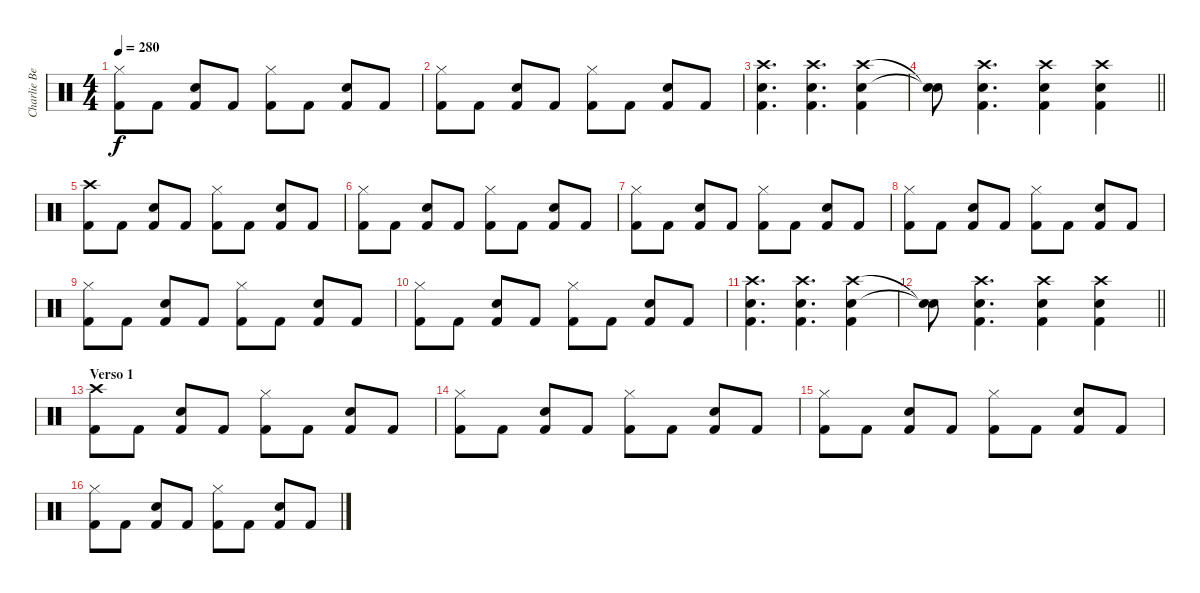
\track ("Charlie Benante" "Charlie Be") {instrument percussion}
\staff {score}
\articulation defaults
\ts (4 4)
\tempo 280
\clef neutral
\ks c
("Hi-Hat (closed)" "Kick (hit) 2").8{dy f} "Kick (hit) 2".8 ("Snare (hit) 2" "Kick (hit) 2").8 "Kick (hit) 2".8 ("Hi-Hat (closed)" "Kick (hit) 2").8 "Kick (hit) 2".8 ("Snare (hit) 2" "Kick (hit) 2").8 "Kick (hit) 2".8 |
("Hi-Hat (closed)" "Kick (hit) 2").8 "Kick (hit) 2".8 ("Snare (hit) 2" "Kick (hit) 2").8 "Kick (hit) 2".8 ("Hi-Hat (closed)" "Kick (hit) 2").8 "Kick (hit) 2".8 ("Snare (hit) 2" "Kick (hit) 2").8 "Kick (hit) 2".8 |
("Crash high (hit)" "Snare (hit) 2" "Kick (hit) 2").4{d} ("Crash high (hit)" "Snare (hit) 2" "Kick (hit) 2").4{d} ("Crash high (hit)" "Snare (hit) 2" "Kick (hit) 2").4 |
\barLineRight lightlight
("Snare (hit)"{t} "Snare (hit)"{t}).8 ("Crash high (hit)" "Snare (hit) 2" "Kick (hit) 2").4{d} ("Crash high (hit)" "Snare (hit) 2" "Kick (hit) 2").4 ("Crash high (hit)" "Snare (hit) 2" "Kick (hit) 2").4 |
("Crash high (hit)" "Kick (hit) 2").8 "Kick (hit) 2".8 ("Snare (hit) 2" "Kick (hit) 2").8 "Kick (hit) 2".8 ("Hi-Hat (closed)" "Kick (hit) 2").8 "Kick (hit) 2".8 ("Snare (hit) 2" "Kick (hit) 2").8 "Kick (hit) 2".8 |
("Hi-Hat (closed)" "Kick (hit) 2").8 "Kick (hit) 2".8 ("Snare (hit) 2" "Kick (hit) 2").8 "Kick (hit) 2".8 ("Hi-Hat (closed)" "Kick (hit) 2").8 "Kick (hit) 2".8 ("Snare (hit) 2" "Kick (hit) 2").8 "Kick (hit) 2".8 |
("Hi-Hat (closed)" "Kick (hit) 2").8 "Kick (hit) 2".8 ("Snare (hit) 2" "Kick (hit) 2").8 "Kick (hit) 2".8 ("Hi-Hat (closed)" "Kick (hit) 2").8 "Kick (hit) 2".8 ("Snare (hit) 2" "Kick (hit) 2").8 "Kick (hit) 2".8 |
("Hi-Hat (closed)" "Kick (hit) 2").8 "Kick (hit) 2".8 ("Snare (hit) 2" "Kick (hit) 2").8 "Kick (hit) 2".8 ("Hi-Hat (closed)" "Kick (hit) 2").8 "Kick (hit) 2".8 ("Snare (hit) 2" "Kick (hit) 2").8 "Kick (hit) 2".8 |
("Hi-Hat (closed)" "Kick (hit) 2").8 "Kick (hit) 2".8 ("Snare (hit) 2" "Kick (hit) 2").8 "Kick (hit) 2".8 ("Hi-Hat (closed)" "Kick (hit) 2").8 "Kick (hit) 2".8 ("Snare (hit) 2" "Kick (hit) 2").8 "Kick (hit) 2".8 |
("Hi-Hat (closed)" "Kick (hit) 2").8 "Kick (hit) 2".8 ("Snare (hit) 2" "Kick (hit) 2").8 "Kick (hit) 2".8 ("Hi-Hat (closed)" "Kick (hit) 2").8 "Kick (hit) 2".8 ("Snare (hit) 2" "Kick (hit) 2").8 "Kick (hit) 2".8 |
("Crash high (hit)" "Snare (hit) 2" "Kick (hit) 2").4{d} ("Crash high (hit)" "Snare (hit) 2" "Kick (hit) 2").4{d} ("Crash high (hit)" "Snare (hit) 2" "Kick (hit) 2").4 |
\barLineRight lightlight
("Snare (hit)"{t} "Snare (hit)"{t}).8 ("Crash high (hit)" "Snare (hit) 2" "Kick (hit) 2").4{d} ("Crash high (hit)" "Snare (hit) 2" "Kick (hit) 2").4 ("Crash high (hit)" "Snare (hit) 2" "Kick (hit) 2").4 |
\section ("" "Verso 1")
("Crash high (hit)" "Kick (hit) 2").8 "Kick (hit) 2".8 ("Snare (hit) 2" "Kick (hit) 2").8 "Kick (hit) 2".8 ("Hi-Hat (closed)" "Kick (hit) 2").8 "Kick (hit) 2".8 ("Snare (hit) 2" "Kick (hit) 2").8 "Kick (hit) 2".8 |
("Hi-Hat (closed)" "Kick (hit) 2").8 "Kick (hit) 2".8 ("Snare (hit) 2" "Kick (hit) 2").8 "Kick (hit) 2".8 ("Hi-Hat (closed)" "Kick (hit) 2").8 "Kick (hit) 2".8 ("Snare (hit) 2" "Kick (hit) 2").8 "Kick (hit) 2".8 |
("Hi-Hat (closed)" "Kick (hit) 2").8 "Kick (hit) 2".8 ("Snare (hit) 2" "Kick (hit) 2").8 "Kick (hit) 2".8 ("Hi-Hat (closed)" "Kick (hit) 2").8 "Kick (hit) 2".8 ("Snare (hit) 2" "Kick (hit) 2").8 "Kick (hit) 2".8 |
("Hi-Hat (closed)" "Kick (hit) 2").8 "Kick (hit) 2".8 ("Snare (hit) 2" "Kick (hit) 2").8 "Kick (hit) 2".8 ("Hi-Hat (closed)" "Kick (hit) 2").8 "Kick (hit) 2".8 ("Snare (hit) 2" "Kick (hit) 2").8 "Kick (hit) 2".8
